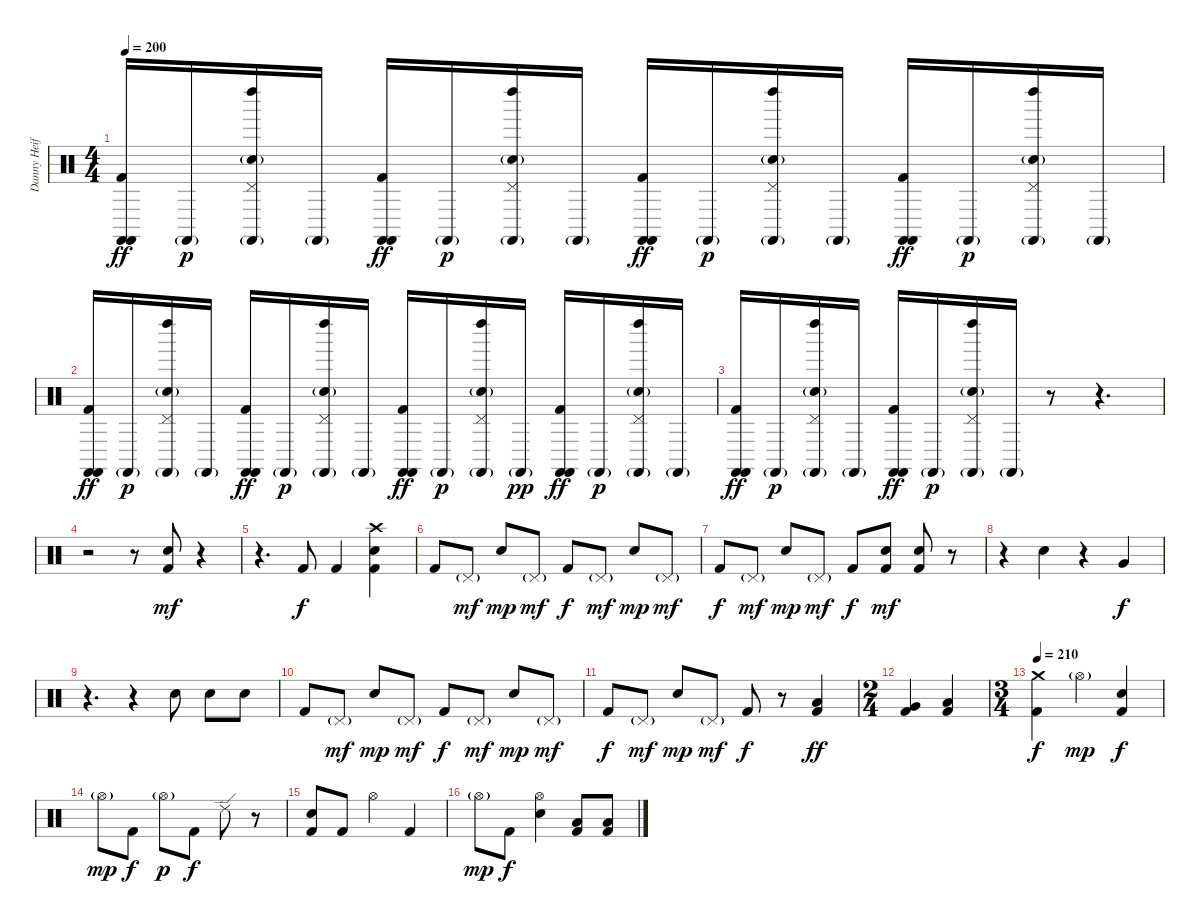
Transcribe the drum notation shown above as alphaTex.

\track ("Danny Heifetz - Drums" "Danny Heif") {instrument percussion}
\staff {score}
\articulation defaults
\ts (4 4)
\tempo 200
\clef neutral
\ks c
("Kick (hit) 2" "Castanets (hit)" "Castanets (hit)").16{dy ff} "Castanets (hit)"{g}.16{dy p} ("Left Maraca (hit)" "Pedal Hi-Hat (hit)" "Electric Snare (hit)"{g} "Castanets (hit)"{g}).16 "Castanets (hit)"{g}.16 ("Kick (hit) 2" "Castanets (hit)" "Castanets (hit)").16{dy ff} "Castanets (hit)"{g}.16{dy p} ("Left Maraca (hit)" "Pedal Hi-Hat (hit)" "Electric Snare (hit)"{g} "Castanets (hit)"{g}).16 "Castanets (hit)"{g}.16 ("Kick (hit) 2" "Castanets (hit)" "Castanets (hit)").16{dy ff} "Castanets (hit)"{g}.16{dy p} ("Left Maraca (hit)" "Pedal Hi-Hat (hit)" "Electric Snare (hit)"{g} "Castanets (hit)"{g}).16 "Castanets (hit)"{g}.16 ("Kick (hit) 2" "Castanets (hit)" "Castanets (hit)").16{dy ff} "Castanets (hit)"{g}.16{dy p} ("Left Maraca (hit)" "Pedal Hi-Hat (hit)" "Electric Snare (hit)"{g} "Castanets (hit)"{g}).16 "Castanets (hit)"{g}.16 |
("Kick (hit) 2" "Castanets (hit)" "Castanets (hit)").16{dy ff} "Castanets (hit)"{g}.16{dy p} ("Left Maraca (hit)" "Pedal Hi-Hat (hit)" "Electric Snare (hit)"{g} "Castanets (hit)"{g}).16 "Castanets (hit)"{g}.16 ("Kick (hit) 2" "Castanets (hit)" "Castanets (hit)").16{dy ff} "Castanets (hit)"{g}.16{dy p} ("Left Maraca (hit)" "Pedal Hi-Hat (hit)" "Electric Snare (hit)"{g} "Castanets (hit)"{g}).16 "Castanets (hit)"{g}.16 ("Kick (hit) 2" "Castanets (hit)" "Castanets (hit)").16{dy ff} "Castanets (hit)"{g}.16{dy p} ("Left Maraca (hit)" "Pedal Hi-Hat (hit)" "Electric Snare (hit)"{g} "Castanets (hit)"{g}).16 "Castanets (hit)"{g}.16{dy pp} ("Kick (hit) 2" "Castanets (hit)" "Castanets (hit)").16{dy ff} "Castanets (hit)"{g}.16{dy p} ("Left Maraca (hit)" "Pedal Hi-Hat (hit)" "Electric Snare (hit)"{g} "Castanets (hit)"{g}).16 "Castanets (hit)"{g}.16 |
("Kick (hit) 2" "Castanets (hit)" "Castanets (hit)").16{dy ff} "Castanets (hit)"{g}.16{dy p} ("Left Maraca (hit)" "Pedal Hi-Hat (hit)" "Electric Snare (hit)"{g} "Castanets (hit)"{g}).16 "Castanets (hit)"{g}.16 ("Kick (hit) 2" "Castanets (hit)" "Castanets (hit)").16{dy ff} "Castanets (hit)"{g}.16{dy p} ("Left Maraca (hit)" "Pedal Hi-Hat (hit)" "Electric Snare (hit)"{g} "Castanets (hit)"{g}).16 "Castanets (hit)"{g}.16 r.8 r.4{d} |
r.2 r.8 ("Electric Snare (hit)" "Kick (hit) 2").8{dy mf} r.4 |
r.4{d} "Kick (hit) 2".8{dy f} "Kick (hit) 2".4 ("Crash high (hit)" "Electric Snare (hit)" "Kick (hit) 2").4 |
"Kick (hit) 2".8 "Pedal Hi-Hat (hit)"{g}.8{dy mf} "Electric Snare (hit)".8{dy mp} "Pedal Hi-Hat (hit)"{g}.8{dy mf} "Kick (hit) 2".8{dy f} "Pedal Hi-Hat (hit)"{g}.8{dy mf} "Electric Snare (hit)".8{dy mp} "Pedal Hi-Hat (hit)"{g}.8{dy mf} |
"Kick (hit) 2".8{dy f} "Pedal Hi-Hat (hit)"{g}.8{dy mf} "Electric Snare (hit)".8{dy mp} "Pedal Hi-Hat (hit)"{g}.8{dy mf} "Kick (hit) 2".8{dy f} ("Electric Snare (hit)" "Kick (hit) 2").8{dy mf} ("Electric Snare (hit)" "Kick (hit) 2").8 r.8 |
r.4 "Electric Snare (hit)".4 r.4 "Very Low Tom (hit)".4{dy f} |
r.4{d} r.4 "Electric Snare (hit)".8 "Electric Snare (hit)".8 "Electric Snare (hit)".8 |
"Kick (hit) 2".8 "Pedal Hi-Hat (hit)"{g}.8{dy mf} "Electric Snare (hit)".8{dy mp} "Pedal Hi-Hat (hit)"{g}.8{dy mf} "Kick (hit) 2".8{dy f} "Pedal Hi-Hat (hit)"{g}.8{dy mf} "Electric Snare (hit)".8{dy mp} "Pedal Hi-Hat (hit)"{g}.8{dy mf} |
"Kick (hit) 2".8{dy f} "Pedal Hi-Hat (hit)"{g}.8{dy mf} "Electric Snare (hit)".8{dy mp} "Pedal Hi-Hat (hit)"{g}.8{dy mf} "Kick (hit) 2".8{dy f} r.8 ("Low Tom (hit)" "Kick (hit) 2").4{dy ff} |
\ts (2 4)
("Very Low Tom (hit)" "Kick (hit) 2").4 ("Low Floor Tom (hit)" "Kick (hit) 2").4 |
\ts (3 4)
\tempo 210
("Crash medium (hit)" "Kick (hit) 2").4{dy f} "Hi-Hat (open)"{g}.4{dy mp} ("Electric Snare (hit)" "Kick (hit) 2").4{dy f} |
"Hi-Hat (open)"{g}.8{dy mp} "Kick (hit) 2".8{dy f} "Hi-Hat (open)"{g}.8{dy p} "Kick (hit) 2".8{dy f} "Ride (edge) 2".8 r.8 |
("Electric Snare (hit)" "Kick (hit) 2").8 "Kick (hit) 2".8 "Hi-Hat (open)".4 "Kick (hit) 2".4 |
"Hi-Hat (open)"{g}.8{dy mp} "Kick (hit) 2".8{dy f} ("Hi-Hat (open)" "Electric Snare (hit)").4 ("Low Floor Tom (hit)" "Kick (hit) 2").8 ("Low Floor Tom (hit)" "Kick (hit) 2").8
